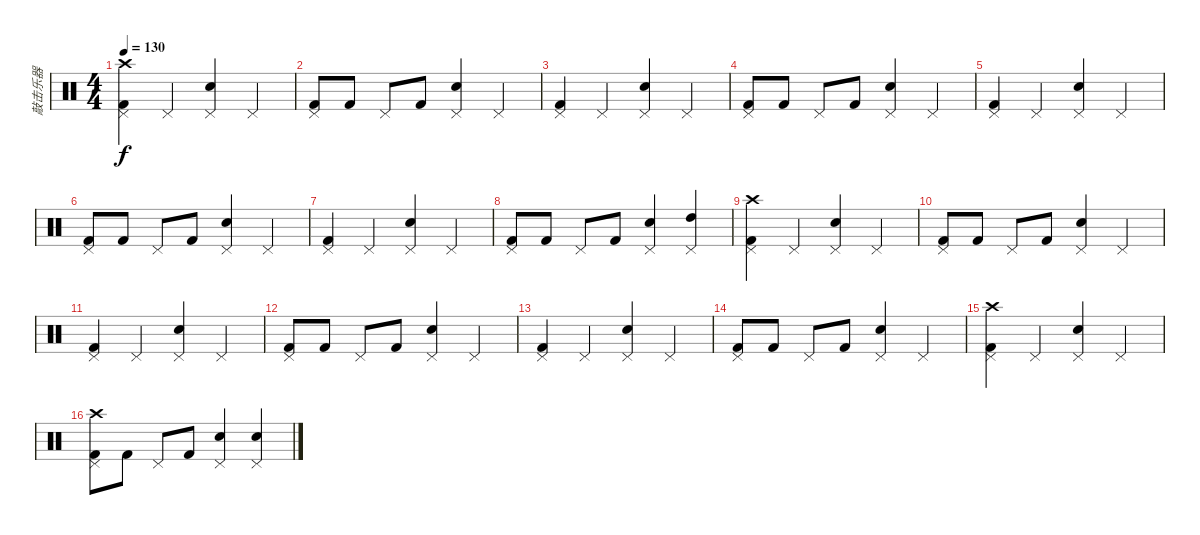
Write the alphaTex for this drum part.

\track ("敲击乐器" "敲击乐器") {instrument percussion}
\staff {score}
\articulation defaults
\ts (4 4)
\tempo 130
\clef neutral
\ks c
("Crash high (hit)" "Kick (hit) 2" "Pedal Hi-Hat (hit)").4{dy f} "Pedal Hi-Hat (hit)".4 ("Pedal Hi-Hat (hit)" "Electric Snare (hit)").4 "Pedal Hi-Hat (hit)".4 |
("Pedal Hi-Hat (hit)" "Kick (hit) 2").8 "Kick (hit) 2".8 "Pedal Hi-Hat (hit)".8 "Kick (hit) 2".8 ("Pedal Hi-Hat (hit)" "Electric Snare (hit)").4 "Pedal Hi-Hat (hit)".4 |
("Kick (hit) 2" "Pedal Hi-Hat (hit)").4 "Pedal Hi-Hat (hit)".4 ("Pedal Hi-Hat (hit)" "Electric Snare (hit)").4 "Pedal Hi-Hat (hit)".4 |
("Pedal Hi-Hat (hit)" "Kick (hit) 2").8 "Kick (hit) 2".8 "Pedal Hi-Hat (hit)".8 "Kick (hit) 2".8 ("Pedal Hi-Hat (hit)" "Electric Snare (hit)").4 "Pedal Hi-Hat (hit)".4 |
("Kick (hit) 2" "Pedal Hi-Hat (hit)").4 "Pedal Hi-Hat (hit)".4 ("Pedal Hi-Hat (hit)" "Electric Snare (hit)").4 "Pedal Hi-Hat (hit)".4 |
("Pedal Hi-Hat (hit)" "Kick (hit) 2").8 "Kick (hit) 2".8 "Pedal Hi-Hat (hit)".8 "Kick (hit) 2".8 ("Pedal Hi-Hat (hit)" "Electric Snare (hit)").4 "Pedal Hi-Hat (hit)".4 |
("Kick (hit) 2" "Pedal Hi-Hat (hit)").4 "Pedal Hi-Hat (hit)".4 ("Pedal Hi-Hat (hit)" "Electric Snare (hit)").4 "Pedal Hi-Hat (hit)".4 |
("Pedal Hi-Hat (hit)" "Kick (hit) 2").8 "Kick (hit) 2".8 "Pedal Hi-Hat (hit)".8 "Kick (hit) 2".8 ("Pedal Hi-Hat (hit)" "Electric Snare (hit)").4 ("Pedal Hi-Hat (hit)" "High Tom (hit)").4 |
("Crash high (hit)" "Kick (hit) 2" "Pedal Hi-Hat (hit)").4 "Pedal Hi-Hat (hit)".4 ("Pedal Hi-Hat (hit)" "Electric Snare (hit)").4 "Pedal Hi-Hat (hit)".4 |
("Pedal Hi-Hat (hit)" "Kick (hit) 2").8 "Kick (hit) 2".8 "Pedal Hi-Hat (hit)".8 "Kick (hit) 2".8 ("Pedal Hi-Hat (hit)" "Electric Snare (hit)").4 "Pedal Hi-Hat (hit)".4 |
("Kick (hit) 2" "Pedal Hi-Hat (hit)").4 "Pedal Hi-Hat (hit)".4 ("Pedal Hi-Hat (hit)" "Electric Snare (hit)").4 "Pedal Hi-Hat (hit)".4 |
("Pedal Hi-Hat (hit)" "Kick (hit) 2").8 "Kick (hit) 2".8 "Pedal Hi-Hat (hit)".8 "Kick (hit) 2".8 ("Pedal Hi-Hat (hit)" "Electric Snare (hit)").4 "Pedal Hi-Hat (hit)".4 |
("Kick (hit) 2" "Pedal Hi-Hat (hit)").4 "Pedal Hi-Hat (hit)".4 ("Pedal Hi-Hat (hit)" "Electric Snare (hit)").4 "Pedal Hi-Hat (hit)".4 |
("Pedal Hi-Hat (hit)" "Kick (hit) 2").8 "Kick (hit) 2".8 "Pedal Hi-Hat (hit)".8 "Kick (hit) 2".8 ("Pedal Hi-Hat (hit)" "Electric Snare (hit)").4 "Pedal Hi-Hat (hit)".4 |
("Crash high (hit)" "Kick (hit) 2" "Pedal Hi-Hat (hit)").4 "Pedal Hi-Hat (hit)".4 ("Pedal Hi-Hat (hit)" "Electric Snare (hit)").4 "Pedal Hi-Hat (hit)".4 |
("Crash high (hit)" "Pedal Hi-Hat (hit)" "Kick (hit) 2").8 "Kick (hit) 2".8 "Pedal Hi-Hat (hit)".8 "Kick (hit) 2".8 ("Pedal Hi-Hat (hit)" "Electric Snare (hit)").4 ("Pedal Hi-Hat (hit)" "Electric Snare (hit)").4
